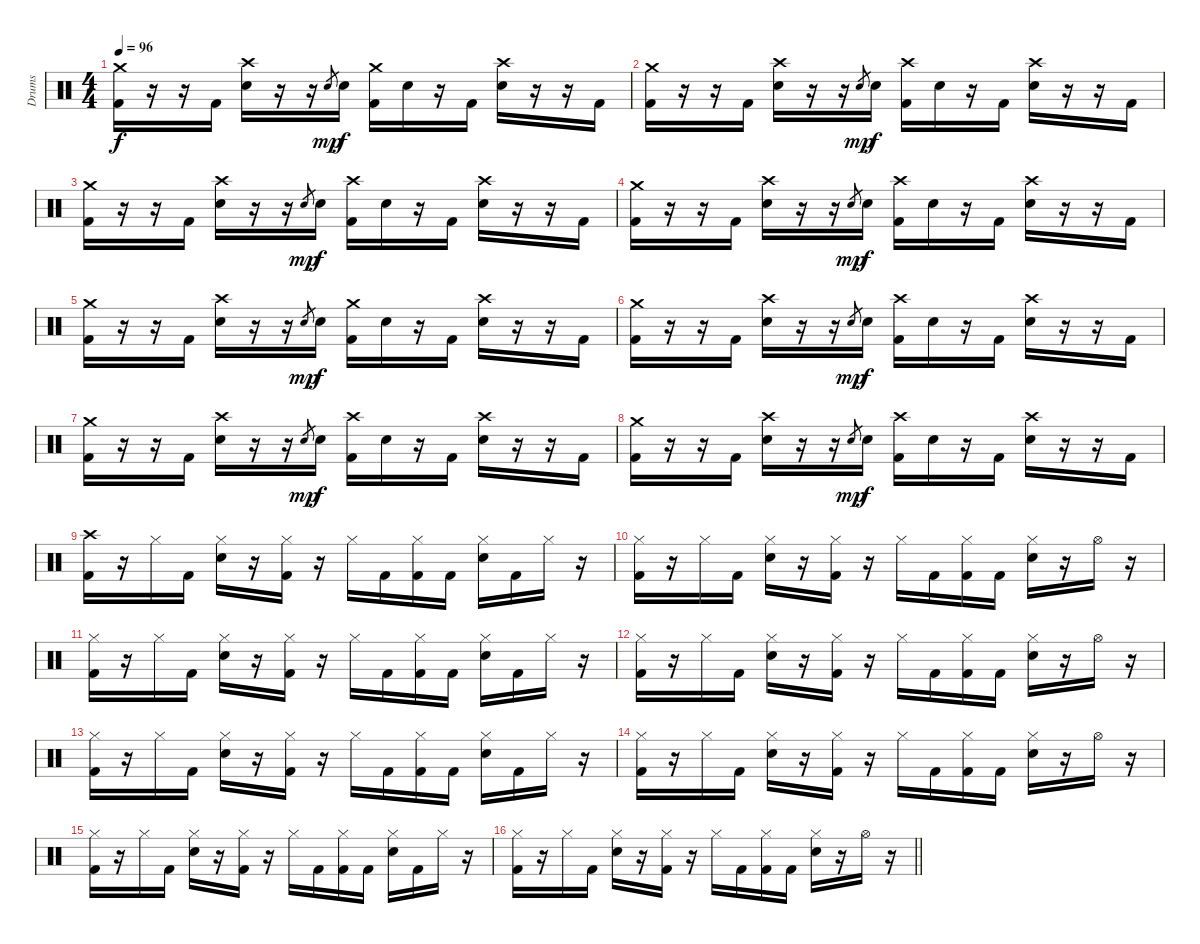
\track ("Drums" "Drums") {instrument percussion}
\staff {score}
\articulation defaults
\ts (4 4)
\tempo 96
\clef neutral
\ks c
("Kick (hit) 2" "Crash medium (hit)").16{dy f} r.16 r.16 "Kick (hit) 2".16 ("Electric Snare (hit)" "Crash high (hit)").16 r.16 r.16 "Electric Snare (hit)".8{gr dy mp} "Electric Snare (hit)".16{dy f} ("Kick (hit) 2" "Crash medium (hit)").16 "Electric Snare (hit)".16 r.16 "Kick (hit) 2".16 ("Electric Snare (hit)" "Crash high (hit)").16 r.16 r.16 "Kick (hit) 2".16 |
("Kick (hit) 2" "Crash medium (hit)").16 r.16 r.16 "Kick (hit) 2".16 ("Electric Snare (hit)" "Crash high (hit)").16 r.16 r.16 "Electric Snare (hit)".8{gr dy mp} "Electric Snare (hit)".16{dy f} ("Kick (hit) 2" "Crash high (hit)").16 "Electric Snare (hit)".16 r.16 "Kick (hit) 2".16 ("Electric Snare (hit)" "Crash high (hit)").16 r.16 r.16 "Kick (hit) 2".16 |
("Kick (hit) 2" "Crash medium (hit)").16 r.16 r.16 "Kick (hit) 2".16 ("Electric Snare (hit)" "Crash high (hit)").16 r.16 r.16 "Electric Snare (hit)".8{gr dy mp} "Electric Snare (hit)".16{dy f} ("Kick (hit) 2" "Crash high (hit)").16 "Electric Snare (hit)".16 r.16 "Kick (hit) 2".16 ("Electric Snare (hit)" "Crash high (hit)").16 r.16 r.16 "Kick (hit) 2".16 |
("Kick (hit) 2" "Crash medium (hit)").16 r.16 r.16 "Kick (hit) 2".16 ("Electric Snare (hit)" "Crash high (hit)").16 r.16 r.16 "Electric Snare (hit)".8{gr dy mp} "Electric Snare (hit)".16{dy f} ("Kick (hit) 2" "Crash high (hit)").16 "Electric Snare (hit)".16 r.16 "Kick (hit) 2".16 ("Electric Snare (hit)" "Crash high (hit)").16 r.16 r.16 "Kick (hit) 2".16 |
("Kick (hit) 2" "Crash medium (hit)").16 r.16 r.16 "Kick (hit) 2".16 ("Electric Snare (hit)" "Crash high (hit)").16 r.16 r.16 "Electric Snare (hit)".8{gr dy mp} "Electric Snare (hit)".16{dy f} ("Kick (hit) 2" "Crash medium (hit)").16 "Electric Snare (hit)".16 r.16 "Kick (hit) 2".16 ("Electric Snare (hit)" "Crash high (hit)").16 r.16 r.16 "Kick (hit) 2".16 |
("Kick (hit) 2" "Crash medium (hit)").16 r.16 r.16 "Kick (hit) 2".16 ("Electric Snare (hit)" "Crash high (hit)").16 r.16 r.16 "Electric Snare (hit)".8{gr dy mp} "Electric Snare (hit)".16{dy f} ("Kick (hit) 2" "Crash high (hit)").16 "Electric Snare (hit)".16 r.16 "Kick (hit) 2".16 ("Electric Snare (hit)" "Crash high (hit)").16 r.16 r.16 "Kick (hit) 2".16 |
("Kick (hit) 2" "Crash medium (hit)").16 r.16 r.16 "Kick (hit) 2".16 ("Electric Snare (hit)" "Crash high (hit)").16 r.16 r.16 "Electric Snare (hit)".8{gr dy mp} "Electric Snare (hit)".16{dy f} ("Kick (hit) 2" "Crash high (hit)").16 "Electric Snare (hit)".16 r.16 "Kick (hit) 2".16 ("Electric Snare (hit)" "Crash high (hit)").16 r.16 r.16 "Kick (hit) 2".16 |
("Kick (hit) 2" "Crash medium (hit)").16 r.16 r.16 "Kick (hit) 2".16 ("Electric Snare (hit)" "Crash high (hit)").16 r.16 r.16 "Electric Snare (hit)".8{gr dy mp} "Electric Snare (hit)".16{dy f} ("Kick (hit) 2" "Crash high (hit)").16 "Electric Snare (hit)".16 r.16 "Kick (hit) 2".16 ("Electric Snare (hit)" "Crash high (hit)").16 r.16 r.16 "Kick (hit) 2".16 |
("Crash high (hit)" "Kick (hit) 2").16 r.16 "Hi-Hat (closed)".16 "Kick (hit) 2".16 ("Hi-Hat (closed)" "Electric Snare (hit)").16 r.16 ("Hi-Hat (closed)" "Kick (hit) 2").16 r.16 "Hi-Hat (closed)".16 "Kick (hit) 2".16 ("Hi-Hat (closed)" "Kick (hit) 2").16 "Kick (hit) 2".16 ("Hi-Hat (closed)" "Electric Snare (hit)").16 "Kick (hit) 2".16 "Hi-Hat (closed)".16 r.16 |
("Hi-Hat (closed)" "Kick (hit) 2").16 r.16 "Hi-Hat (closed)".16 "Kick (hit) 2".16 ("Hi-Hat (closed)" "Electric Snare (hit)").16 r.16 ("Hi-Hat (closed)" "Kick (hit) 2").16 r.16 "Hi-Hat (closed)".16 "Kick (hit) 2".16 ("Hi-Hat (closed)" "Kick (hit) 2").16 "Kick (hit) 2".16 ("Hi-Hat (closed)" "Electric Snare (hit)").16 r.16 "Hi-Hat (open)".16 r.16 |
("Hi-Hat (closed)" "Kick (hit) 2").16 r.16 "Hi-Hat (closed)".16 "Kick (hit) 2".16 ("Hi-Hat (closed)" "Electric Snare (hit)").16 r.16 ("Hi-Hat (closed)" "Kick (hit) 2").16 r.16 "Hi-Hat (closed)".16 "Kick (hit) 2".16 ("Hi-Hat (closed)" "Kick (hit) 2").16 "Kick (hit) 2".16 ("Hi-Hat (closed)" "Electric Snare (hit)").16 "Kick (hit) 2".16 "Hi-Hat (closed)".16 r.16 |
("Hi-Hat (closed)" "Kick (hit) 2").16 r.16 "Hi-Hat (closed)".16 "Kick (hit) 2".16 ("Hi-Hat (closed)" "Electric Snare (hit)").16 r.16 ("Hi-Hat (closed)" "Kick (hit) 2").16 r.16 "Hi-Hat (closed)".16 "Kick (hit) 2".16 ("Hi-Hat (closed)" "Kick (hit) 2").16 "Kick (hit) 2".16 ("Hi-Hat (closed)" "Electric Snare (hit)").16 r.16 "Hi-Hat (open)".16 r.16 |
("Hi-Hat (closed)" "Kick (hit) 2").16 r.16 "Hi-Hat (closed)".16 "Kick (hit) 2".16 ("Hi-Hat (closed)" "Electric Snare (hit)").16 r.16 ("Hi-Hat (closed)" "Kick (hit) 2").16 r.16 "Hi-Hat (closed)".16 "Kick (hit) 2".16 ("Hi-Hat (closed)" "Kick (hit) 2").16 "Kick (hit) 2".16 ("Hi-Hat (closed)" "Electric Snare (hit)").16 "Kick (hit) 2".16 "Hi-Hat (closed)".16 r.16 |
("Hi-Hat (closed)" "Kick (hit) 2").16 r.16 "Hi-Hat (closed)".16 "Kick (hit) 2".16 ("Hi-Hat (closed)" "Electric Snare (hit)").16 r.16 ("Hi-Hat (closed)" "Kick (hit) 2").16 r.16 "Hi-Hat (closed)".16 "Kick (hit) 2".16 ("Hi-Hat (closed)" "Kick (hit) 2").16 "Kick (hit) 2".16 ("Hi-Hat (closed)" "Electric Snare (hit)").16 r.16 "Hi-Hat (open)".16 r.16 |
("Hi-Hat (closed)" "Kick (hit) 2").16 r.16 "Hi-Hat (closed)".16 "Kick (hit) 2".16 ("Hi-Hat (closed)" "Electric Snare (hit)").16 r.16 ("Hi-Hat (closed)" "Kick (hit) 2").16 r.16 "Hi-Hat (closed)".16 "Kick (hit) 2".16 ("Hi-Hat (closed)" "Kick (hit) 2").16 "Kick (hit) 2".16 ("Hi-Hat (closed)" "Electric Snare (hit)").16 "Kick (hit) 2".16 "Hi-Hat (closed)".16 r.16 |
\barLineRight lightlight
("Hi-Hat (closed)" "Kick (hit) 2").16 r.16 "Hi-Hat (closed)".16 "Kick (hit) 2".16 ("Hi-Hat (closed)" "Electric Snare (hit)").16 r.16 ("Hi-Hat (closed)" "Kick (hit) 2").16 r.16 "Hi-Hat (closed)".16 "Kick (hit) 2".16 ("Hi-Hat (closed)" "Kick (hit) 2").16 "Kick (hit) 2".16 ("Hi-Hat (closed)" "Electric Snare (hit)").16 r.16 "Hi-Hat (open)".16 r.16
